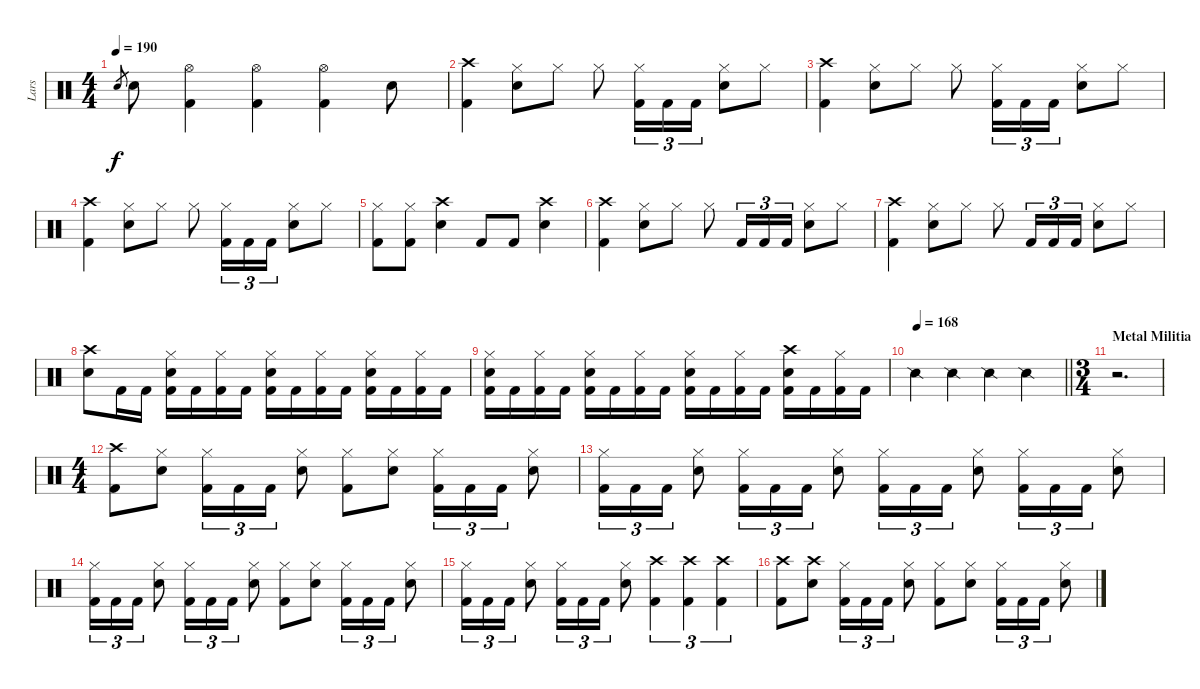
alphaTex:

\track ("Lars" "Lars") {instrument percussion}
\staff {score}
\articulation defaults
\ts (4 4)
\tempo 190
\clef neutral
\ks c "Snare (hit) 2".8{gr dy f} "Snare (hit) 2".8
("Hi-Hat (open)" "Kick (hit) 2").4 ("Hi-Hat (open)" "Kick (hit) 2").4 ("Hi-Hat (open)" "Kick (hit) 2").4 "Snare (hit) 2".8 |
("Crash high (hit)" "Kick (hit) 2").4 ("Hi-Hat (closed)" "Snare (hit) 2").8 "Hi-Hat (closed)".8 "Hi-Hat (closed)".8 ("Hi-Hat (closed)" "Kick (hit) 2").16{tu (3 2)} "Kick (hit) 2".16{tu (3 2)} "Kick (hit) 2".16{tu (3 2)} ("Hi-Hat (closed)" "Snare (hit) 2").8 "Hi-Hat (closed)".8 |
("Crash high (hit)" "Kick (hit) 2").4 ("Hi-Hat (closed)" "Snare (hit) 2").8 "Hi-Hat (closed)".8 "Hi-Hat (closed)".8 ("Hi-Hat (closed)" "Kick (hit) 2").16{tu (3 2)} "Kick (hit) 2".16{tu (3 2)} "Kick (hit) 2".16{tu (3 2)} ("Hi-Hat (closed)" "Snare (hit) 2").8 "Hi-Hat (closed)".8 |
("Crash high (hit)" "Kick (hit) 2").4 ("Hi-Hat (closed)" "Snare (hit) 2").8 "Hi-Hat (closed)".8 "Hi-Hat (closed)".8 ("Hi-Hat (closed)" "Kick (hit) 2").16{tu (3 2)} "Kick (hit) 2".16{tu (3 2)} "Kick (hit) 2".16{tu (3 2)} ("Hi-Hat (closed)" "Snare (hit) 2").8 "Hi-Hat (closed)".8 |
("Hi-Hat (closed)" "Kick (hit) 2").8 ("Hi-Hat (closed)" "Kick (hit) 2").8 ("Crash high (hit)" "Snare (hit) 2").4 "Kick (hit) 2".8 "Kick (hit) 2".8 ("Crash high (hit)" "Snare (hit) 2").4 |
("Crash high (hit)" "Kick (hit) 2").4 ("Hi-Hat (closed)" "Snare (hit) 2").8 "Hi-Hat (closed)".8 "Hi-Hat (closed)".8 "Kick (hit) 2".16{tu (3 2)} "Kick (hit) 2".16{tu (3 2)} "Kick (hit) 2".16{tu (3 2)} ("Hi-Hat (closed)" "Snare (hit) 2").8 "Hi-Hat (closed)".8 |
("Crash high (hit)" "Kick (hit) 2").4 ("Hi-Hat (closed)" "Snare (hit) 2").8 "Hi-Hat (closed)".8 "Hi-Hat (closed)".8 "Kick (hit) 2".16{tu (3 2)} "Kick (hit) 2".16{tu (3 2)} "Kick (hit) 2".16{tu (3 2)} ("Hi-Hat (closed)" "Snare (hit) 2").8 "Hi-Hat (closed)".8 |
("Crash high (hit)" "Snare (hit) 2").8 "Kick (hit) 2".16 "Kick (hit) 2".16 ("Hi-Hat (closed)" "Snare (hit) 2" "Kick (hit) 2").16 "Kick (hit) 2".16 ("Hi-Hat (closed)" "Kick (hit) 2").16 "Kick (hit) 2".16 ("Hi-Hat (closed)" "Snare (hit) 2" "Kick (hit) 2").16 "Kick (hit) 2".16 ("Hi-Hat (closed)" "Kick (hit) 2").16 "Kick (hit) 2".16 ("Hi-Hat (closed)" "Snare (hit) 2" "Kick (hit) 2").16 "Kick (hit) 2".16 ("Hi-Hat (closed)" "Kick (hit) 2").16 "Kick (hit) 2".16 |
("Hi-Hat (closed)" "Snare (hit) 2" "Kick (hit) 2").16 "Kick (hit) 2".16 ("Hi-Hat (closed)" "Kick (hit) 2").16 "Kick (hit) 2".16 ("Hi-Hat (closed)" "Snare (hit) 2" "Kick (hit) 2").16 "Kick (hit) 2".16 ("Hi-Hat (closed)" "Kick (hit) 2").16 "Kick (hit) 2".16 ("Hi-Hat (closed)" "Snare (hit) 2" "Kick (hit) 2").16 "Kick (hit) 2".16 ("Hi-Hat (closed)" "Kick (hit) 2").16 "Kick (hit) 2".16 ("Crash high (hit)" "Snare (hit) 2" "Kick (hit) 2").16 "Kick (hit) 2".16 ("Hi-Hat (closed)" "Kick (hit) 2").16 "Kick (hit) 2".16 |
\tempo 168
\barLineRight lightlight "Snare (side stick) 2".4 "Snare (side stick) 2".4 "Snare (side stick) 2".4 "Snare (side stick) 2".4
|
\ts (3 4)
\section ("" "Metal Militia")
r.2{d} |
\ts (4 4)
("Crash high (hit)" "Kick (hit) 2").8 ("Hi-Hat (closed)" "Snare (hit) 2").8 ("Hi-Hat (closed)" "Kick (hit) 2").16{tu (3 2)} "Kick (hit) 2".16{tu (3 2)} "Kick (hit) 2".16{tu (3 2)} ("Hi-Hat (closed)" "Snare (hit) 2").8 ("Hi-Hat (closed)" "Kick (hit) 2").8 ("Hi-Hat (closed)" "Snare (hit) 2").8 ("Hi-Hat (closed)" "Kick (hit) 2").16{tu (3 2)} "Kick (hit) 2".16{tu (3 2)} "Kick (hit) 2".16{tu (3 2)} ("Hi-Hat (closed)" "Snare (hit) 2").8 |
("Hi-Hat (closed)" "Kick (hit) 2").16{tu (3 2)} "Kick (hit) 2".16{tu (3 2)} "Kick (hit) 2".16{tu (3 2)} ("Hi-Hat (closed)" "Snare (hit) 2").8 ("Hi-Hat (closed)" "Kick (hit) 2").16{tu (3 2)} "Kick (hit) 2".16{tu (3 2)} "Kick (hit) 2".16{tu (3 2)} ("Hi-Hat (closed)" "Snare (hit) 2").8 ("Hi-Hat (closed)" "Kick (hit) 2").16{tu (3 2)} "Kick (hit) 2".16{tu (3 2)} "Kick (hit) 2".16{tu (3 2)} ("Hi-Hat (closed)" "Snare (hit) 2").8 ("Hi-Hat (closed)" "Kick (hit) 2").16{tu (3 2)} "Kick (hit) 2".16{tu (3 2)} "Kick (hit) 2".16{tu (3 2)} ("Hi-Hat (closed)" "Snare (hit) 2").8 |
("Hi-Hat (closed)" "Kick (hit) 2").16{tu (3 2)} "Kick (hit) 2".16{tu (3 2)} "Kick (hit) 2".16{tu (3 2)} ("Hi-Hat (closed)" "Snare (hit) 2").8 ("Hi-Hat (closed)" "Kick (hit) 2").16{tu (3 2)} "Kick (hit) 2".16{tu (3 2)} "Kick (hit) 2".16{tu (3 2)} ("Hi-Hat (closed)" "Snare (hit) 2").8 ("Hi-Hat (closed)" "Kick (hit) 2").8 ("Hi-Hat (closed)" "Snare (hit) 2").8 ("Hi-Hat (closed)" "Kick (hit) 2").16{tu (3 2)} "Kick (hit) 2".16{tu (3 2)} "Kick (hit) 2".16{tu (3 2)} ("Hi-Hat (closed)" "Snare (hit) 2").8 |
("Hi-Hat (closed)" "Kick (hit) 2").16{tu (3 2)} "Kick (hit) 2".16{tu (3 2)} "Kick (hit) 2".16{tu (3 2)} ("Hi-Hat (closed)" "Snare (hit) 2").8 ("Hi-Hat (closed)" "Kick (hit) 2").16{tu (3 2)} "Kick (hit) 2".16{tu (3 2)} "Kick (hit) 2".16{tu (3 2)} ("Hi-Hat (closed)" "Snare (hit) 2").8 ("Crash high (hit)" "Kick (hit) 2").4{tu (3 2)} ("Crash high (hit)" "Kick (hit) 2").4{tu (3 2)} ("Crash high (hit)" "Kick (hit) 2").4{tu (3 2)} |
("Crash high (hit)" "Kick (hit) 2").8 ("Crash high (hit)" "Snare (hit) 2").8 ("Hi-Hat (closed)" "Kick (hit) 2").16{tu (3 2)} "Kick (hit) 2".16{tu (3 2)} "Kick (hit) 2".16{tu (3 2)} ("Hi-Hat (closed)" "Snare (hit) 2").8 ("Hi-Hat (closed)" "Kick (hit) 2").8 ("Hi-Hat (closed)" "Snare (hit) 2").8 ("Hi-Hat (closed)" "Kick (hit) 2").16{tu (3 2)} "Kick (hit) 2".16{tu (3 2)} "Kick (hit) 2".16{tu (3 2)} ("Hi-Hat (closed)" "Snare (hit) 2").8
